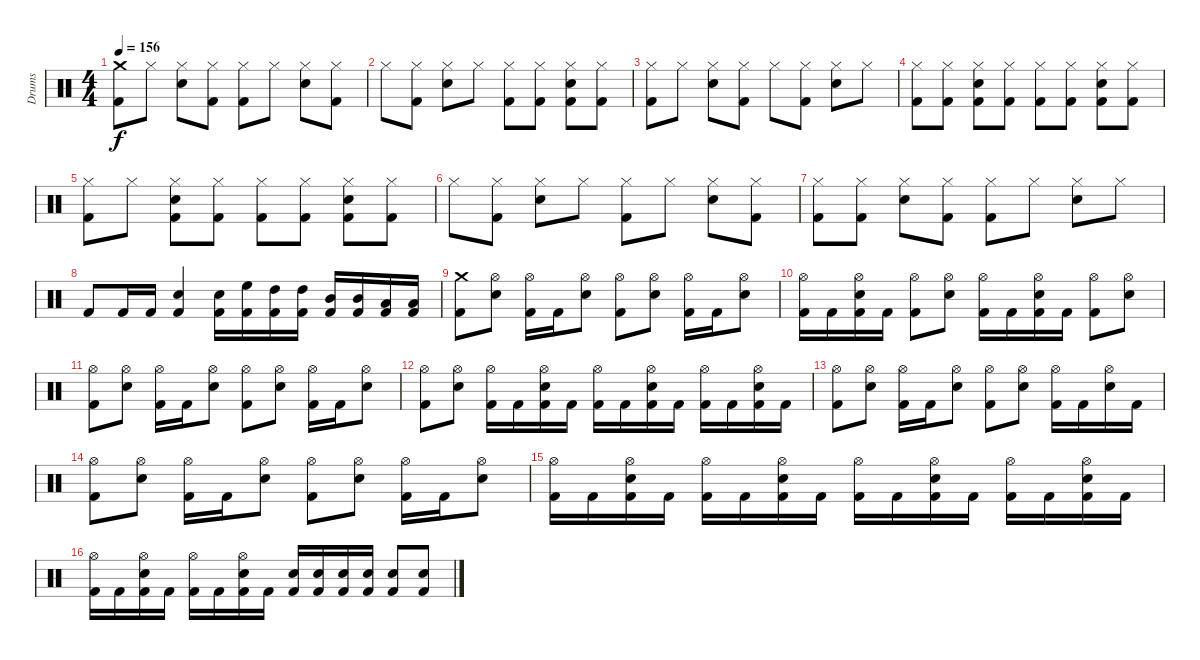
\track ("Drums" "Drums") {instrument percussion}
\staff {score}
\articulation defaults
\ts (4 4)
\tempo 156
\clef neutral
\ks c
("Kick (hit) 2" "Crash medium (hit)").8{dy f} "Hi-Hat (closed)".8 ("Snare (hit) 2" "Hi-Hat (closed)").8 ("Kick (hit) 2" "Hi-Hat (closed)").8 ("Kick (hit) 2" "Hi-Hat (closed)").8 "Hi-Hat (closed)".8 ("Snare (hit) 2" "Hi-Hat (closed)").8 ("Kick (hit) 2" "Hi-Hat (closed)").8 |
"Hi-Hat (closed)".8 ("Kick (hit) 2" "Hi-Hat (closed)").8 ("Snare (hit) 2" "Hi-Hat (closed)").8 "Hi-Hat (closed)".8 ("Kick (hit) 2" "Hi-Hat (closed)").8 ("Kick (hit) 2" "Hi-Hat (closed)").8 ("Kick (hit) 2" "Snare (hit) 2" "Hi-Hat (closed)").8 ("Kick (hit) 2" "Hi-Hat (closed)").8 |
("Kick (hit) 2" "Hi-Hat (closed)").8 "Hi-Hat (closed)".8 ("Snare (hit) 2" "Hi-Hat (closed)").8 ("Kick (hit) 2" "Hi-Hat (closed)").8 "Hi-Hat (closed)".8 ("Kick (hit) 2" "Hi-Hat (closed)").8 ("Snare (hit) 2" "Hi-Hat (closed)").8 "Hi-Hat (closed)".8 |
("Kick (hit) 2" "Hi-Hat (closed)").8 ("Kick (hit) 2" "Hi-Hat (closed)").8 ("Kick (hit) 2" "Snare (hit) 2" "Hi-Hat (closed)").8 ("Kick (hit) 2" "Hi-Hat (closed)").8 ("Kick (hit) 2" "Hi-Hat (closed)").8 ("Kick (hit) 2" "Hi-Hat (closed)").8 ("Kick (hit) 2" "Snare (hit) 2" "Hi-Hat (closed)").8 ("Kick (hit) 2" "Hi-Hat (closed)").8 |
("Kick (hit) 2" "Hi-Hat (closed)").8 "Hi-Hat (closed)".8 ("Kick (hit) 2" "Snare (hit) 2" "Hi-Hat (closed)").8 ("Kick (hit) 2" "Hi-Hat (closed)").8 ("Kick (hit) 2" "Hi-Hat (closed)").8 ("Kick (hit) 2" "Hi-Hat (closed)").8 ("Kick (hit) 2" "Snare (hit) 2" "Hi-Hat (closed)").8 ("Kick (hit) 2" "Hi-Hat (closed)").8 |
"Hi-Hat (closed)".8 ("Kick (hit) 2" "Hi-Hat (closed)").8 ("Snare (hit) 2" "Hi-Hat (closed)").8 "Hi-Hat (closed)".8 ("Kick (hit) 2" "Hi-Hat (closed)").8 "Hi-Hat (closed)".8 ("Snare (hit) 2" "Hi-Hat (closed)").8 ("Kick (hit) 2" "Hi-Hat (closed)").8 |
("Kick (hit) 2" "Hi-Hat (closed)").8 ("Kick (hit) 2" "Hi-Hat (closed)").8 ("Snare (hit) 2" "Hi-Hat (closed)").8 ("Kick (hit) 2" "Hi-Hat (closed)").8 ("Kick (hit) 2" "Hi-Hat (closed)").8 "Hi-Hat (closed)".8 ("Snare (hit) 2" "Hi-Hat (closed)").8 "Hi-Hat (closed)".8 |
"Kick (hit) 2".8 "Kick (hit) 2".16 "Kick (hit) 2".16 ("Kick (hit) 2" "Snare (hit) 2").4 ("Kick (hit) 2" "Snare (hit) 2").16 ("Kick (hit) 2" "High Floor Tom (hit)").16 ("Kick (hit) 2" "High Tom (hit)").16 ("Kick (hit) 2" "High Tom (hit)").16 ("Kick (hit) 2" "Mid Tom (hit)").16 ("Kick (hit) 2" "Mid Tom (hit)").16 ("Kick (hit) 2" "Low Tom (hit)").16 ("Kick (hit) 2" "Low Tom (hit)").16 |
("Kick (hit) 2" "Crash medium (hit)").8 ("Snare (hit) 2" "Hi-Hat (open)").8 ("Kick (hit) 2" "Hi-Hat (open)").16 "Kick (hit) 2".16 ("Snare (hit) 2" "Hi-Hat (open)").8 ("Kick (hit) 2" "Hi-Hat (open)").8 ("Snare (hit) 2" "Hi-Hat (open)").8 ("Kick (hit) 2" "Hi-Hat (open)").16 "Kick (hit) 2".16 ("Snare (hit) 2" "Hi-Hat (open)").8 |
("Kick (hit) 2" "Hi-Hat (open)").16 "Kick (hit) 2".16 ("Kick (hit) 2" "Snare (hit) 2" "Hi-Hat (open)").16 "Kick (hit) 2".16 ("Kick (hit) 2" "Hi-Hat (open)").8 ("Snare (hit) 2" "Hi-Hat (open)").8 ("Kick (hit) 2" "Hi-Hat (open)").16 "Kick (hit) 2".16 ("Kick (hit) 2" "Snare (hit) 2" "Hi-Hat (open)").16 "Kick (hit) 2".16 ("Kick (hit) 2" "Hi-Hat (open)").8 ("Snare (hit) 2" "Hi-Hat (open)").8 |
("Kick (hit) 2" "Hi-Hat (open)").8 ("Snare (hit) 2" "Hi-Hat (open)").8 ("Kick (hit) 2" "Hi-Hat (open)").16 "Kick (hit) 2".16 ("Snare (hit) 2" "Hi-Hat (open)").8 ("Kick (hit) 2" "Hi-Hat (open)").8 ("Snare (hit) 2" "Hi-Hat (open)").8 ("Kick (hit) 2" "Hi-Hat (open)").16 "Kick (hit) 2".16 ("Snare (hit) 2" "Hi-Hat (open)").8 |
("Kick (hit) 2" "Hi-Hat (open)").8 ("Snare (hit) 2" "Hi-Hat (open)").8 ("Kick (hit) 2" "Hi-Hat (open)").16 "Kick (hit) 2".16 ("Kick (hit) 2" "Snare (hit) 2" "Hi-Hat (open)").16 "Kick (hit) 2".16 ("Kick (hit) 2" "Hi-Hat (open)").16 "Kick (hit) 2".16 ("Kick (hit) 2" "Snare (hit) 2" "Hi-Hat (open)").16 "Kick (hit) 2".16 ("Kick (hit) 2" "Hi-Hat (open)").16 "Kick (hit) 2".16 ("Kick (hit) 2" "Snare (hit) 2" "Hi-Hat (open)").16 "Kick (hit) 2".16 |
("Kick (hit) 2" "Hi-Hat (open)").8 ("Snare (hit) 2" "Hi-Hat (open)").8 ("Kick (hit) 2" "Hi-Hat (open)").16 "Kick (hit) 2".16 ("Snare (hit) 2" "Hi-Hat (open)").8 ("Kick (hit) 2" "Hi-Hat (open)").8 ("Snare (hit) 2" "Hi-Hat (open)").8 ("Kick (hit) 2" "Hi-Hat (open)").16 "Kick (hit) 2".16 ("Snare (hit) 2" "Hi-Hat (open)").16 "Kick (hit) 2".16 |
("Kick (hit) 2" "Hi-Hat (open)").8 ("Snare (hit) 2" "Hi-Hat (open)").8 ("Kick (hit) 2" "Hi-Hat (open)").16 "Kick (hit) 2".16 ("Snare (hit) 2" "Hi-Hat (open)").8 ("Kick (hit) 2" "Hi-Hat (open)").8 ("Snare (hit) 2" "Hi-Hat (open)").8 ("Kick (hit) 2" "Hi-Hat (open)").16 "Kick (hit) 2".16 ("Snare (hit) 2" "Hi-Hat (open)").8 |
("Kick (hit) 2" "Hi-Hat (open)").16 "Kick (hit) 2".16 ("Kick (hit) 2" "Snare (hit) 2" "Hi-Hat (open)").16 "Kick (hit) 2".16 ("Kick (hit) 2" "Hi-Hat (open)").16 "Kick (hit) 2".16 ("Kick (hit) 2" "Snare (hit) 2" "Hi-Hat (open)").16 "Kick (hit) 2".16 ("Kick (hit) 2" "Hi-Hat (open)").16 "Kick (hit) 2".16 ("Kick (hit) 2" "Snare (hit) 2" "Hi-Hat (open)").16 "Kick (hit) 2".16 ("Kick (hit) 2" "Hi-Hat (open)").16 "Kick (hit) 2".16 ("Kick (hit) 2" "Snare (hit) 2" "Hi-Hat (open)").16 "Kick (hit) 2".16 |
("Kick (hit) 2" "Hi-Hat (open)").16 "Kick (hit) 2".16 ("Kick (hit) 2" "Snare (hit) 2" "Hi-Hat (open)").16 "Kick (hit) 2".16 ("Kick (hit) 2" "Hi-Hat (open)").16 "Kick (hit) 2".16 ("Kick (hit) 2" "Snare (hit) 2" "Hi-Hat (open)").16 "Kick (hit) 2".16 ("Kick (hit) 2" "Snare (hit) 2").16 ("Kick (hit) 2" "Snare (hit) 2").16 ("Kick (hit) 2" "Snare (hit) 2").16 ("Kick (hit) 2" "Snare (hit) 2").16 ("Kick (hit) 2" "Snare (hit) 2").8 ("Kick (hit) 2" "Snare (hit) 2").8
